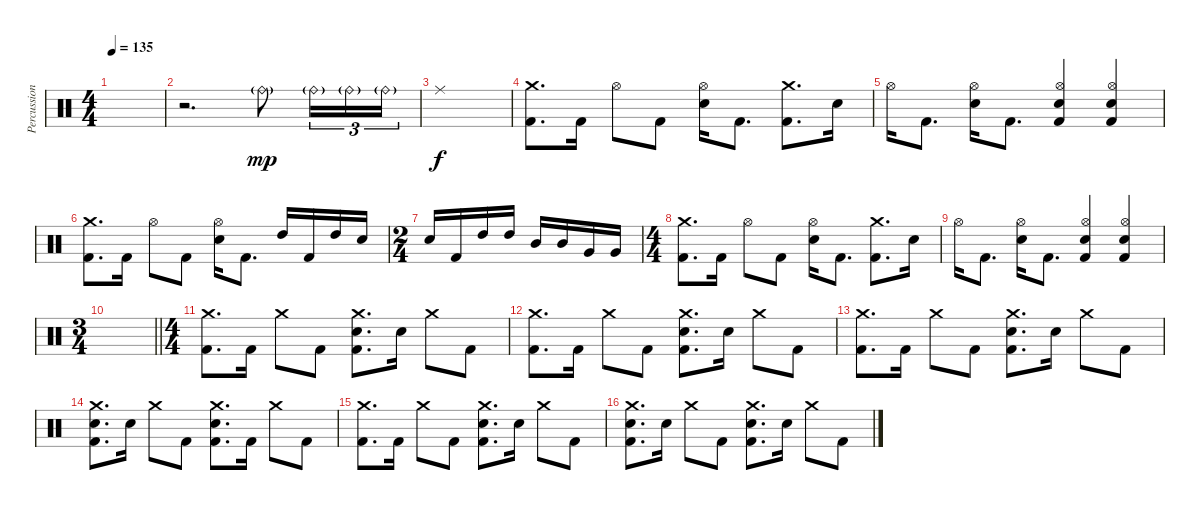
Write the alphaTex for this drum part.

\track ("Percussions" "Percussion") {instrument percussion}
\staff {score}
\articulation defaults
\ts (4 4)
\tempo 135
\clef neutral
\ks c
|
r.2{d} "Ride (bell)"{g}.8{dy mp} "Ride (bell)"{g}.16{tu (3 2)} "Ride (bell)"{g}.16{tu (3 2)} "Ride (bell)"{g}.16{tu (3 2)} |
"Ride (middle)".1{dy f} |
("Crash medium (hit)" "Kick (hit) 2").8{d} "Kick (hit) 2".16 "Hi-Hat (open)".8 "Kick (hit) 2".8 ("Hi-Hat (open)" "Electric Snare (hit)").16 "Kick (hit) 2".8{d} ("Crash medium (hit)" "Kick (hit) 2").8{d} "Electric Snare (hit)".16 |
"Hi-Hat (open)".16 "Kick (hit) 2".8{d} ("Hi-Hat (open)" "Electric Snare (hit)").16 "Kick (hit) 2".8{d} ("Hi-Hat (open)" "Electric Snare (hit)" "Kick (hit) 2").4 ("Hi-Hat (open)" "Electric Snare (hit)" "Kick (hit) 2").4 |
("Crash medium (hit)" "Kick (hit) 2").8{d} "Kick (hit) 2".16 "Hi-Hat (open)".8 "Kick (hit) 2".8 ("Hi-Hat (open)" "Electric Snare (hit)").16 "Kick (hit) 2".8{d} "High Tom (hit)".16 "Kick (hit) 2".16 "High Tom (hit)".16 "Electric Snare (hit)".16 |
\ts (2 4)
"Electric Snare (hit)".16 "Kick (hit) 2".16 "High Tom (hit)".16 "High Tom (hit)".16 "Mid Tom (hit)".16 "Mid Tom (hit)".16 "Very Low Tom (hit)".16 "Very Low Tom (hit)".16 |
\ts (4 4)
("Crash medium (hit)" "Kick (hit) 2").8{d} "Kick (hit) 2".16 "Hi-Hat (open)".8 "Kick (hit) 2".8 ("Hi-Hat (open)" "Electric Snare (hit)").16 "Kick (hit) 2".8{d} ("Crash medium (hit)" "Kick (hit) 2").8{d} "Electric Snare (hit)".16 |
"Hi-Hat (open)".16 "Kick (hit) 2".8{d} ("Hi-Hat (open)" "Electric Snare (hit)").16 "Kick (hit) 2".8{d} ("Hi-Hat (open)" "Electric Snare (hit)" "Kick (hit) 2").4 ("Hi-Hat (open)" "Electric Snare (hit)" "Kick (hit) 2").4 |
\ts (3 4)
\barLineRight lightlight
|
\ts (4 4)
("Crash medium (hit)" "Kick (hit) 2").8{d} "Kick (hit) 2".16 "Crash medium (hit)".8 "Kick (hit) 2".8 ("Crash medium (hit)" "Electric Snare (hit)" "Kick (hit) 2").8{d} "Electric Snare (hit)".16 "Crash medium (hit)".8 "Kick (hit) 2".8 |
("Crash medium (hit)" "Kick (hit) 2").8{d} "Kick (hit) 2".16 "Crash medium (hit)".8 "Kick (hit) 2".8 ("Crash medium (hit)" "Electric Snare (hit)" "Kick (hit) 2").8{d} "Electric Snare (hit)".16 "Crash medium (hit)".8 "Kick (hit) 2".8 |
("Crash medium (hit)" "Kick (hit) 2").8{d} "Kick (hit) 2".16 "Crash medium (hit)".8 "Kick (hit) 2".8 ("Crash medium (hit)" "Electric Snare (hit)" "Kick (hit) 2").8{d} "Electric Snare (hit)".16 "Crash medium (hit)".8 "Kick (hit) 2".8 |
("Crash medium (hit)" "Electric Snare (hit)" "Kick (hit) 2").8{d} "Electric Snare (hit)".16 "Crash medium (hit)".8 "Kick (hit) 2".8 ("Crash medium (hit)" "Electric Snare (hit)" "Kick (hit) 2").8{d} "Kick (hit) 2".16 "Crash medium (hit)".8 "Kick (hit) 2".8 |
("Crash medium (hit)" "Kick (hit) 2").8{d} "Kick (hit) 2".16 "Crash medium (hit)".8 "Kick (hit) 2".8 ("Crash medium (hit)" "Electric Snare (hit)" "Kick (hit) 2").8{d} "Electric Snare (hit)".16 "Crash medium (hit)".8 "Kick (hit) 2".8 |
("Crash medium (hit)" "Electric Snare (hit)" "Kick (hit) 2").8{d} "Electric Snare (hit)".16 "Crash medium (hit)".8 "Kick (hit) 2".8 ("Crash medium (hit)" "Electric Snare (hit)" "Kick (hit) 2").8{d} "Electric Snare (hit)".16 "Crash medium (hit)".8 "Kick (hit) 2".8
